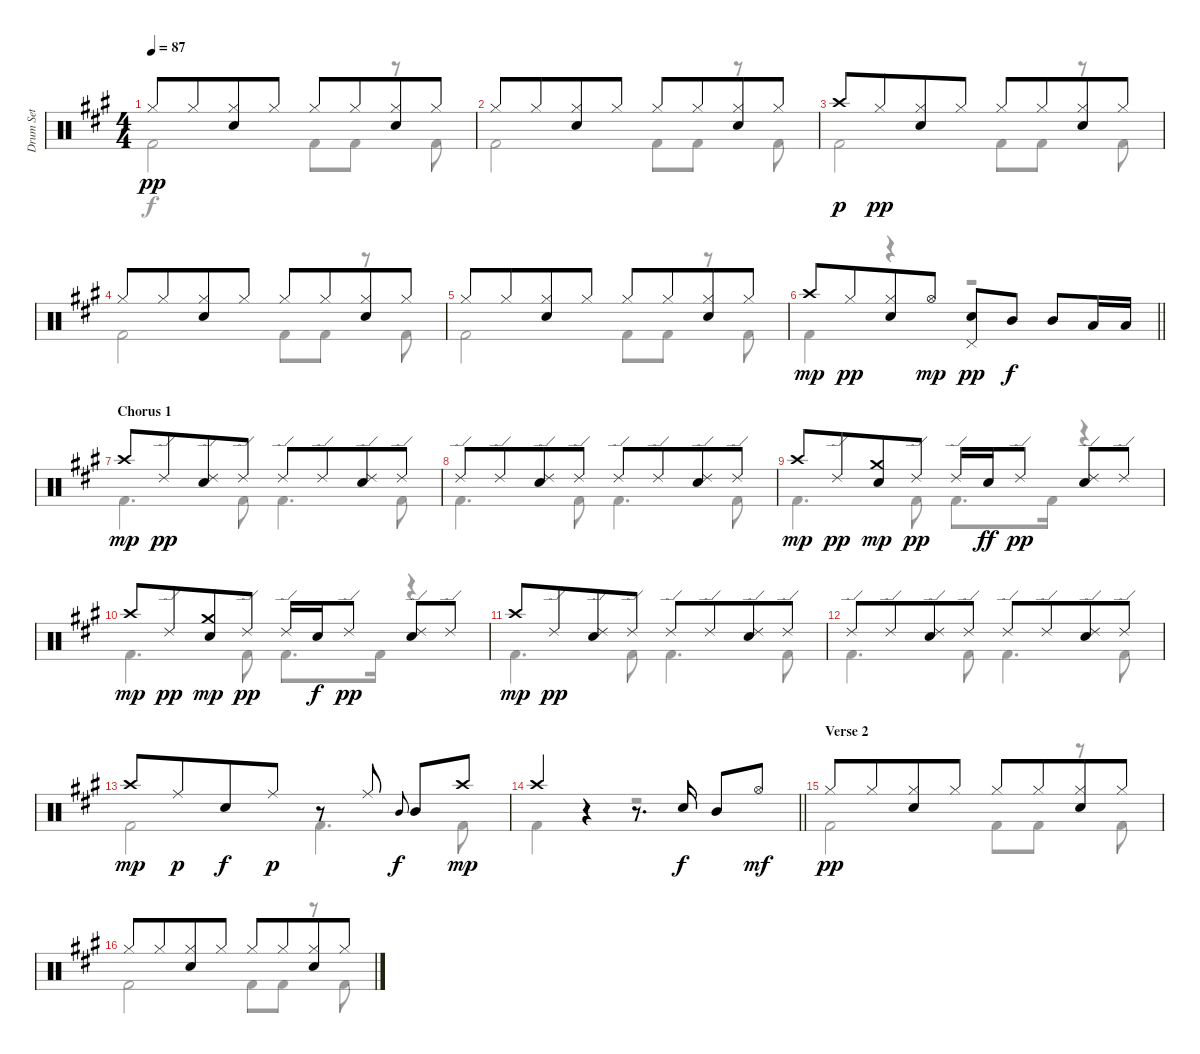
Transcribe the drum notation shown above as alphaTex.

\track ("Drum Set" "Drum Set") {instrument percussion}
\staff {score}
\articulation defaults
\voice
\ts (4 4)
\tempo 87
\clef neutral
\ks f#minor "Hi-Hat (closed)".8{dy pp} "Hi-Hat (closed)".8{beam merge}
("Hi-Hat (closed)" "Electric Snare (hit)").8 "Hi-Hat (closed)".8 "Hi-Hat (closed)".8 "Hi-Hat (closed)".8{beam merge} ("Hi-Hat (closed)" "Electric Snare (hit)").8 "Hi-Hat (closed)".8 |
"Hi-Hat (closed)".8 "Hi-Hat (closed)".8{beam merge} ("Hi-Hat (closed)" "Electric Snare (hit)").8 "Hi-Hat (closed)".8 "Hi-Hat (closed)".8 "Hi-Hat (closed)".8{beam merge} ("Hi-Hat (closed)" "Electric Snare (hit)").8 "Hi-Hat (closed)".8 |
"Crash high (hit)".8{dy p} "Hi-Hat (closed)".8{dy pp beam merge} ("Hi-Hat (closed)" "Electric Snare (hit)").8 "Hi-Hat (closed)".8 "Hi-Hat (closed)".8 "Hi-Hat (closed)".8{beam merge} ("Hi-Hat (closed)" "Electric Snare (hit)").8 "Hi-Hat (closed)".8 |
"Hi-Hat (closed)".8 "Hi-Hat (closed)".8{beam merge} ("Hi-Hat (closed)" "Electric Snare (hit)").8 "Hi-Hat (closed)".8 "Hi-Hat (closed)".8 "Hi-Hat (closed)".8{beam merge} ("Hi-Hat (closed)" "Electric Snare (hit)").8 "Hi-Hat (closed)".8 |
"Hi-Hat (closed)".8 "Hi-Hat (closed)".8{beam merge} ("Hi-Hat (closed)" "Electric Snare (hit)").8 "Hi-Hat (closed)".8 "Hi-Hat (closed)".8 "Hi-Hat (closed)".8{beam merge} ("Hi-Hat (closed)" "Electric Snare (hit)").8 "Hi-Hat (closed)".8 |
\barLineRight lightlight "Crash high (hit)".8{dy mp} "Hi-Hat (closed)".8{dy pp beam merge}
("Hi-Hat (closed)" "Electric Snare (hit)").8 "Hi-Hat (open)".8{dy mp} ("Electric Snare (hit)" "Pedal Hi-Hat (hit)").8{dy pp} "Mid Tom (hit)".8{dy f} "Mid Tom (hit)".8 "Low Tom (hit)".16 "Low Tom (hit)".16 |
\section ("" "Chorus 1")
"Crash high (hit)".8{dy mp} "Ride (edge) 2".8{dy pp beam merge} ("Ride (edge) 2" "Electric Snare (hit)").8 "Ride (edge) 2".8 "Ride (edge) 2".8 "Ride (edge) 2".8{beam merge} ("Ride (edge) 2" "Electric Snare (hit)").8 "Ride (edge) 2".8 |
"Ride (edge) 2".8 "Ride (edge) 2".8{beam merge} ("Ride (edge) 2" "Electric Snare (hit)").8 "Ride (edge) 2".8 "Ride (edge) 2".8 "Ride (edge) 2".8{beam merge} ("Ride (edge) 2" "Electric Snare (hit)").8 "Ride (edge) 2".8 |
"Crash high (hit)".8{dy mp} "Ride (edge) 2".8{dy pp beam merge} ("Crash medium (hit)" "Electric Snare (hit)").8{dy mp} "Ride (edge) 2".8{dy pp} "Ride (edge) 2".16 "Electric Snare (hit)".16{dy ff} "Ride (edge) 2".8{dy pp} ("Electric Snare (hit)" "Ride (edge) 2").8 "Ride (edge) 2".8 |
"Crash high (hit)".8{dy mp} "Ride (edge) 2".8{dy pp beam merge} ("Crash medium (hit)" "Electric Snare (hit)").8{dy mp} "Ride (edge) 2".8{dy pp} "Ride (edge) 2".16 "Electric Snare (hit)".16{dy f} "Ride (edge) 2".8{dy pp} ("Electric Snare (hit)" "Ride (edge) 2").8 "Ride (edge) 2".8 |
"Crash high (hit)".8{dy mp} "Ride (edge) 2".8{dy pp beam merge} ("Ride (edge) 2" "Electric Snare (hit)").8 "Ride (edge) 2".8 "Ride (edge) 2".8 "Ride (edge) 2".8{beam merge} ("Ride (edge) 2" "Electric Snare (hit)").8 "Ride (edge) 2".8 |
"Ride (edge) 2".8 "Ride (edge) 2".8{beam merge} ("Ride (edge) 2" "Electric Snare (hit)").8 "Ride (edge) 2".8 "Ride (edge) 2".8 "Ride (edge) 2".8{beam merge} ("Ride (edge) 2" "Electric Snare (hit)").8 "Ride (edge) 2".8 |
"Crash high (hit)".8{dy mp} "Ride (middle)".8{dy p beam merge} "Electric Snare (hit)".8{dy f} "Ride (middle)".8{dy p} r.8 "Ride (middle)".8 "Mid Tom (hit)".8{gr onbeat dy f} "Mid Tom (hit)".8 "Crash high (hit)".8{dy mp} |
\barLineRight lightlight "Crash high (hit)".4
r.4 r.8{d} "Electric Snare (hit)".16{dy f} "Mid Tom (hit)".8 "Hi-Hat (open)".8{dy mf} |
\section ("" "Verse 2")
"Hi-Hat (closed)".8{dy pp} "Hi-Hat (closed)".8{beam merge} ("Hi-Hat (closed)" "Electric Snare (hit)").8 "Hi-Hat (closed)".8 "Hi-Hat (closed)".8 "Hi-Hat (closed)".8{beam merge} ("Hi-Hat (closed)" "Electric Snare (hit)").8 "Hi-Hat (closed)".8 |
"Hi-Hat (closed)".8 "Hi-Hat (closed)".8{beam merge} ("Hi-Hat (closed)" "Electric Snare (hit)").8 "Hi-Hat (closed)".8 "Hi-Hat (closed)".8 "Hi-Hat (closed)".8{beam merge} ("Hi-Hat (closed)" "Electric Snare (hit)").8 "Hi-Hat (closed)".8
\voice
\clef neutral
\ottava regular
\simile none
\ks f#minor "Kick (hit) 2".2{dy f} "Kick (hit) 2".8 "Kick (hit) 2".8
r.8 "Kick (hit) 2".8 |
"Kick (hit) 2".2 "Kick (hit) 2".8 "Kick (hit) 2".8 r.8 "Kick (hit) 2".8 |
"Kick (hit) 2".2 "Kick (hit) 2".8 "Kick (hit) 2".8 r.8 "Kick (hit) 2".8 |
"Kick (hit) 2".2 "Kick (hit) 2".8 "Kick (hit) 2".8 r.8 "Kick (hit) 2".8 |
"Kick (hit) 2".2 "Kick (hit) 2".8 "Kick (hit) 2".8 r.8 "Kick (hit) 2".8 |
\barLineRight lightlight "Kick (hit) 2".4
r.4 r.2 |
"Kick (hit) 2".4{d} "Kick (hit) 2".8 "Kick (hit) 2".4{d} "Kick (hit) 2".8 |
"Kick (hit) 2".4{d} "Kick (hit) 2".8 "Kick (hit) 2".4{d} "Kick (hit) 2".8 |
"Kick (hit) 2".4{d} "Kick (hit) 2".8 "Kick (hit) 2".8{d} "Kick (hit) 2".16 r.4 |
"Kick (hit) 2".4{d} "Kick (hit) 2".8 "Kick (hit) 2".8{d} "Kick (hit) 2".16 r.4 |
"Kick (hit) 2".4{d} "Kick (hit) 2".8 "Kick (hit) 2".4{d} "Kick (hit) 2".8 |
"Kick (hit) 2".4{d} "Kick (hit) 2".8 "Kick (hit) 2".4{d} "Kick (hit) 2".8 |
"Kick (hit) 2".2 "Kick (hit) 2".4{d} "Kick (hit) 2".8 |
\barLineRight lightlight "Kick (hit) 2".4
r.4 r.2 |
"Kick (hit) 2".2 "Kick (hit) 2".8 "Kick (hit) 2".8 r.8 "Kick (hit) 2".8 |
"Kick (hit) 2".2 "Kick (hit) 2".8 "Kick (hit) 2".8 r.8 "Kick (hit) 2".8
